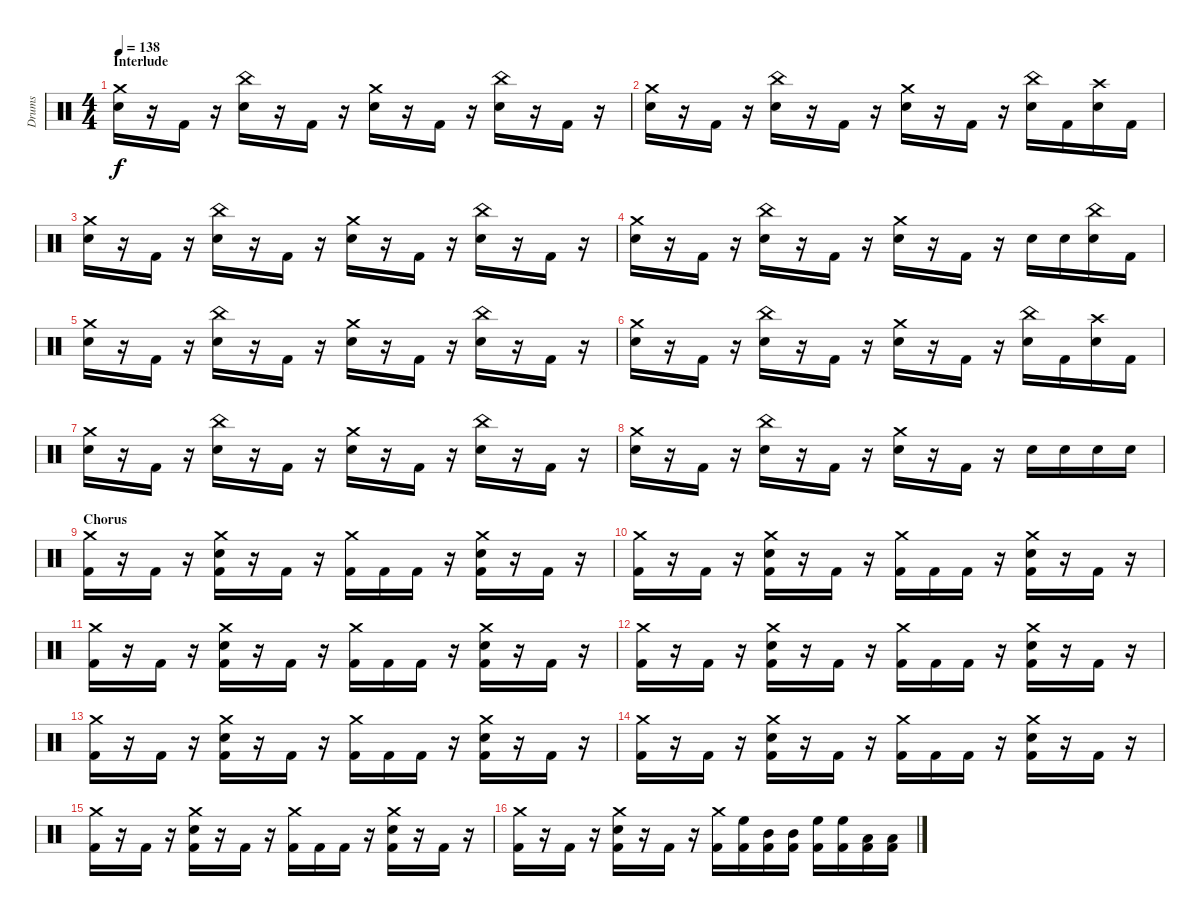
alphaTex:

\track ("Drums" "Drums") {instrument percussion}
\staff {score}
\articulation defaults
\ts (4 4)
\section ("" "Interlude")
\tempo 138
\clef neutral
\ks c
("Crash medium (hit)" "Snare (hit) 2").16{dy f} r.16 "Kick (hit) 2".16 r.16 ("China (hit)" "Snare (hit) 2").16 r.16 "Kick (hit) 2".16 r.16 ("Crash medium (hit)" "Snare (hit) 2").16 r.16 "Kick (hit) 2".16 r.16 ("China (hit)" "Snare (hit) 2").16 r.16 "Kick (hit) 2".16 r.16 |
("Crash medium (hit)" "Snare (hit) 2").16 r.16 "Kick (hit) 2".16 r.16 ("China (hit)" "Snare (hit) 2").16 r.16 "Kick (hit) 2".16 r.16 ("Crash medium (hit)" "Snare (hit) 2").16 r.16 "Kick (hit) 2".16 r.16 ("China (hit)" "Snare (hit) 2").16 "Kick (hit) 2".16 ("Crash high (hit)" "Snare (hit) 2").16 "Kick (hit) 2".16 |
("Crash medium (hit)" "Snare (hit) 2").16 r.16 "Kick (hit) 2".16 r.16 ("China (hit)" "Snare (hit) 2").16 r.16 "Kick (hit) 2".16 r.16 ("Crash medium (hit)" "Snare (hit) 2").16 r.16 "Kick (hit) 2".16 r.16 ("China (hit)" "Snare (hit) 2").16 r.16 "Kick (hit) 2".16 r.16 |
("Crash medium (hit)" "Snare (hit) 2").16 r.16 "Kick (hit) 2".16 r.16 ("China (hit)" "Snare (hit) 2").16 r.16 "Kick (hit) 2".16 r.16 ("Crash medium (hit)" "Snare (hit) 2").16 r.16 "Kick (hit) 2".16 r.16 "Snare (hit) 2".16 "Snare (hit) 2".16 ("China (hit)" "Snare (hit) 2").16 "Kick (hit) 2".16 |
("Crash medium (hit)" "Snare (hit) 2").16 r.16 "Kick (hit) 2".16 r.16 ("China (hit)" "Snare (hit) 2").16 r.16 "Kick (hit) 2".16 r.16 ("Crash medium (hit)" "Snare (hit) 2").16 r.16 "Kick (hit) 2".16 r.16 ("China (hit)" "Snare (hit) 2").16 r.16 "Kick (hit) 2".16 r.16 |
("Crash medium (hit)" "Snare (hit) 2").16 r.16 "Kick (hit) 2".16 r.16 ("China (hit)" "Snare (hit) 2").16 r.16 "Kick (hit) 2".16 r.16 ("Crash medium (hit)" "Snare (hit) 2").16 r.16 "Kick (hit) 2".16 r.16 ("China (hit)" "Snare (hit) 2").16 "Kick (hit) 2".16 ("Crash high (hit)" "Snare (hit) 2").16 "Kick (hit) 2".16 |
("Crash medium (hit)" "Snare (hit) 2").16 r.16 "Kick (hit) 2".16 r.16 ("China (hit)" "Snare (hit) 2").16 r.16 "Kick (hit) 2".16 r.16 ("Crash medium (hit)" "Snare (hit) 2").16 r.16 "Kick (hit) 2".16 r.16 ("China (hit)" "Snare (hit) 2").16 r.16 "Kick (hit) 2".16 r.16 |
("Crash medium (hit)" "Snare (hit) 2").16 r.16 "Kick (hit) 2".16 r.16 ("China (hit)" "Snare (hit) 2").16 r.16 "Kick (hit) 2".16 r.16 ("Crash medium (hit)" "Snare (hit) 2").16 r.16 "Kick (hit) 2".16 r.16 "Snare (hit) 2".16 "Snare (hit) 2".16 "Snare (hit) 2".16 "Snare (hit) 2".16 |
\section ("" "Chorus")
("Crash medium (hit)" "Kick (hit) 2").16 r.16 "Kick (hit) 2".16 r.16 ("Crash medium (hit)" "Snare (hit) 2" "Kick (hit) 2").16 r.16 "Kick (hit) 2".16 r.16 ("Crash medium (hit)" "Kick (hit) 2").16 "Kick (hit) 2".16 "Kick (hit) 2".16 r.16 ("Crash medium (hit)" "Snare (hit) 2" "Kick (hit) 2").16 r.16 "Kick (hit) 2".16 r.16 |
("Crash medium (hit)" "Kick (hit) 2").16 r.16 "Kick (hit) 2".16 r.16 ("Crash medium (hit)" "Snare (hit) 2" "Kick (hit) 2").16 r.16 "Kick (hit) 2".16 r.16 ("Crash medium (hit)" "Kick (hit) 2").16 "Kick (hit) 2".16 "Kick (hit) 2".16 r.16 ("Crash medium (hit)" "Snare (hit) 2" "Kick (hit) 2").16 r.16 "Kick (hit) 2".16 r.16 |
("Crash medium (hit)" "Kick (hit) 2").16 r.16 "Kick (hit) 2".16 r.16 ("Crash medium (hit)" "Snare (hit) 2" "Kick (hit) 2").16 r.16 "Kick (hit) 2".16 r.16 ("Crash medium (hit)" "Kick (hit) 2").16 "Kick (hit) 2".16 "Kick (hit) 2".16 r.16 ("Crash medium (hit)" "Snare (hit) 2" "Kick (hit) 2").16 r.16 "Kick (hit) 2".16 r.16 |
("Crash medium (hit)" "Kick (hit) 2").16 r.16 "Kick (hit) 2".16 r.16 ("Crash medium (hit)" "Snare (hit) 2" "Kick (hit) 2").16 r.16 "Kick (hit) 2".16 r.16 ("Crash medium (hit)" "Kick (hit) 2").16 "Kick (hit) 2".16 "Kick (hit) 2".16 r.16 ("Crash medium (hit)" "Snare (hit) 2" "Kick (hit) 2").16 r.16 "Kick (hit) 2".16 r.16 |
("Crash medium (hit)" "Kick (hit) 2").16 r.16 "Kick (hit) 2".16 r.16 ("Crash medium (hit)" "Snare (hit) 2" "Kick (hit) 2").16 r.16 "Kick (hit) 2".16 r.16 ("Crash medium (hit)" "Kick (hit) 2").16 "Kick (hit) 2".16 "Kick (hit) 2".16 r.16 ("Crash medium (hit)" "Snare (hit) 2" "Kick (hit) 2").16 r.16 "Kick (hit) 2".16 r.16 |
("Crash medium (hit)" "Kick (hit) 2").16 r.16 "Kick (hit) 2".16 r.16 ("Crash medium (hit)" "Snare (hit) 2" "Kick (hit) 2").16 r.16 "Kick (hit) 2".16 r.16 ("Crash medium (hit)" "Kick (hit) 2").16 "Kick (hit) 2".16 "Kick (hit) 2".16 r.16 ("Crash medium (hit)" "Snare (hit) 2" "Kick (hit) 2").16 r.16 "Kick (hit) 2".16 r.16 |
("Crash medium (hit)" "Kick (hit) 2").16 r.16 "Kick (hit) 2".16 r.16 ("Crash medium (hit)" "Snare (hit) 2" "Kick (hit) 2").16 r.16 "Kick (hit) 2".16 r.16 ("Crash medium (hit)" "Kick (hit) 2").16 "Kick (hit) 2".16 "Kick (hit) 2".16 r.16 ("Crash medium (hit)" "Snare (hit) 2" "Kick (hit) 2").16 r.16 "Kick (hit) 2".16 r.16 |
("Crash medium (hit)" "Kick (hit) 2").16 r.16 "Kick (hit) 2".16 r.16 ("Crash medium (hit)" "Snare (hit) 2" "Kick (hit) 2").16 r.16 "Kick (hit) 2".16 r.16 ("Crash medium (hit)" "Kick (hit) 2").16 ("High Floor Tom (hit)" "Kick (hit) 2").16 ("Mid Tom (hit)" "Kick (hit) 2").16 ("Mid Tom (hit)" "Kick (hit) 2").16 ("High Floor Tom (hit)" "Kick (hit) 2").16 ("High Floor Tom (hit)" "Kick (hit) 2").16 ("Low Tom (hit)" "Kick (hit) 2").16 ("Low Tom (hit)" "Kick (hit) 2").16
